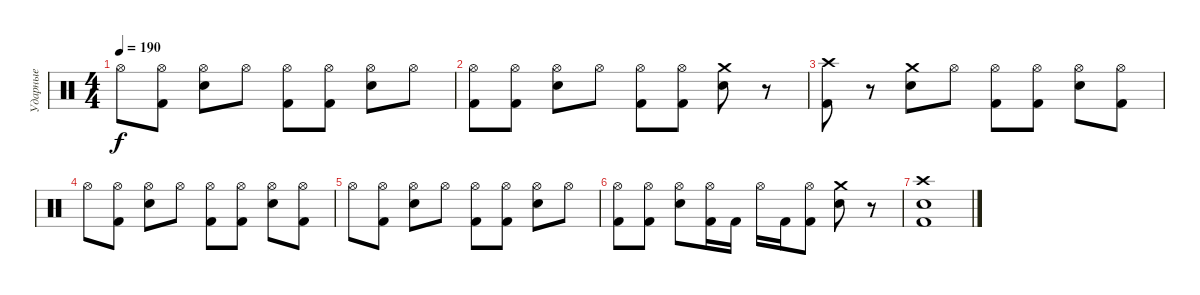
\track ("Ударные" "Ударные") {instrument percussion}
\staff {score}
\articulation defaults
\ts (4 4)
\tempo 190
\clef neutral
\ks c "Hi-Hat (open)".8{dy f}
("Hi-Hat (open)" "Kick (hit) 2").8 ("Hi-Hat (open)" "Electric Snare (hit)").8 "Hi-Hat (open)".8 ("Hi-Hat (open)" "Kick (hit) 2").8 ("Hi-Hat (open)" "Kick (hit) 2").8 ("Hi-Hat (open)" "Electric Snare (hit)").8 "Hi-Hat (open)".8 |
("Hi-Hat (open)" "Kick (hit) 2").8 ("Hi-Hat (open)" "Kick (hit) 2").8 ("Hi-Hat (open)" "Electric Snare (hit)").8 "Hi-Hat (open)".8 ("Hi-Hat (open)" "Kick (hit) 2").8 ("Hi-Hat (open)" "Kick (hit) 2").8 ("Crash medium (hit)" "Electric Snare (hit)").8 r.8 |
("Crash high (hit)" "Kick (hit) 2").8 r.8 ("Crash medium (hit)" "Electric Snare (hit)").8 "Hi-Hat (open)".8 ("Hi-Hat (open)" "Kick (hit) 2").8 ("Hi-Hat (open)" "Kick (hit) 2").8 ("Hi-Hat (open)" "Electric Snare (hit)").8 ("Hi-Hat (open)" "Kick (hit) 2").8 |
"Hi-Hat (open)".8 ("Hi-Hat (open)" "Kick (hit) 2").8 ("Hi-Hat (open)" "Electric Snare (hit)").8 "Hi-Hat (open)".8 ("Hi-Hat (open)" "Kick (hit) 2").8 ("Hi-Hat (open)" "Kick (hit) 2").8 ("Hi-Hat (open)" "Electric Snare (hit)").8 ("Hi-Hat (open)" "Kick (hit) 2").8 |
"Hi-Hat (open)".8 ("Hi-Hat (open)" "Kick (hit) 2").8 ("Hi-Hat (open)" "Electric Snare (hit)").8 "Hi-Hat (open)".8 ("Hi-Hat (open)" "Kick (hit) 2").8 ("Hi-Hat (open)" "Kick (hit) 2").8 ("Hi-Hat (open)" "Electric Snare (hit)").8 "Hi-Hat (open)".8 |
("Hi-Hat (open)" "Kick (hit) 2").8 ("Hi-Hat (open)" "Kick (hit) 2").8 ("Hi-Hat (open)" "Electric Snare (hit)").8 ("Hi-Hat (open)" "Kick (hit) 2").16 "Kick (hit) 2".16 "Hi-Hat (open)".16 "Kick (hit) 2".16 ("Hi-Hat (open)" "Kick (hit) 2").8 ("Crash medium (hit)" "Electric Snare (hit)").8 r.8 |
("Crash high (hit)" "Electric Snare (hit)" "Kick (hit) 2").1
